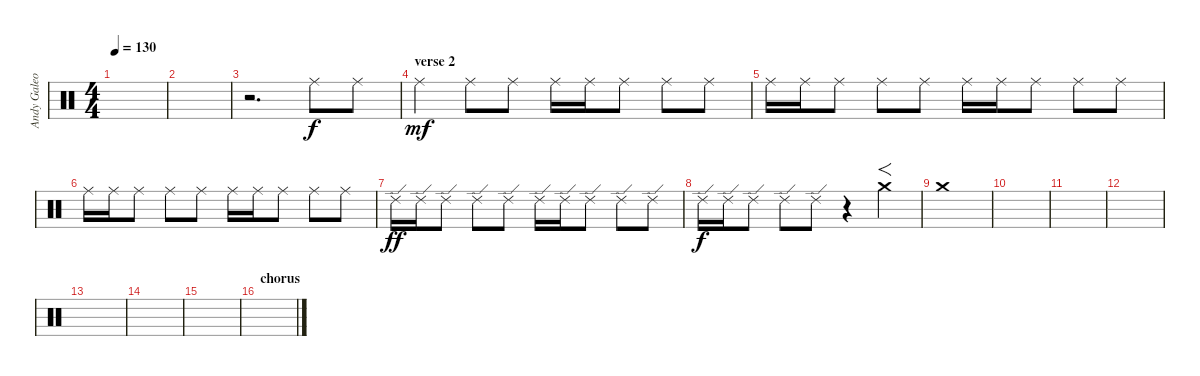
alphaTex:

\track ("Andy Galeon" "Andy Galeo") {instrument percussion}
\staff {score}
\articulation defaults
\ts (4 4)
\tempo 130
\clef neutral
\ks c
|
|
r.2{d} "Ride (middle)".8 "Ride (middle)".8 |
\section ("" "verse 2")
"Ride (middle)".4{dy mf} "Ride (middle)".8 "Ride (middle)".8 "Ride (middle)".16 "Ride (middle)".16 "Ride (middle)".8 "Ride (middle)".8 "Ride (middle)".8 |
"Ride (middle)".16 "Ride (middle)".16 "Ride (middle)".8 "Ride (middle)".8 "Ride (middle)".8 "Ride (middle)".16 "Ride (middle)".16 "Ride (middle)".8 "Ride (middle)".8 "Ride (middle)".8 |
"Ride (middle)".16 "Ride (middle)".16 "Ride (middle)".8 "Ride (middle)".8 "Ride (middle)".8 "Ride (middle)".16 "Ride (middle)".16 "Ride (middle)".8 "Ride (middle)".8 "Ride (middle)".8 |
"Ride (edge) 2".16{dy ff} "Ride (edge) 2".16 "Ride (edge) 2".8 "Ride (edge) 2".8 "Ride (edge) 2".8 "Ride (edge) 2".16 "Ride (edge) 2".16 "Ride (edge) 2".8 "Ride (edge) 2".8 "Ride (edge) 2".8 |
"Ride (edge) 2".16{dy f} "Ride (edge) 2".16 "Ride (edge) 2".8 "Ride (edge) 2".8 "Ride (edge) 2".8 r.4 "Crash medium (hit)".4{f} |
"Crash medium (hit)".1 |
|
|
|
|
|
|
\section ("" "chorus")
